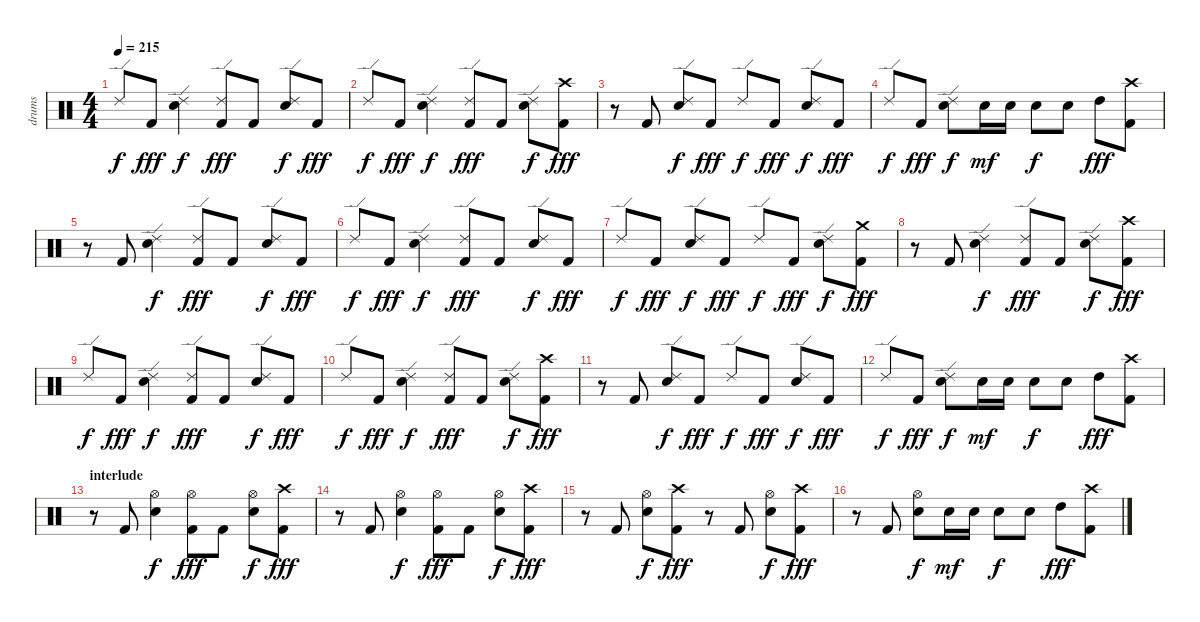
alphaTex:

\track ("drums" "drums") {instrument percussion}
\staff {score}
\articulation defaults
\ts (4 4)
\tempo 215
\clef neutral
\ks c "Ride (edge) 2".8{dy f} "Kick (hit) 2".8{dy fff}
("Ride (edge) 2" "Snare (hit) 2").4{dy f} ("Ride (edge) 2" "Kick (hit) 2").8{dy fff} "Kick (hit) 2".8 ("Ride (edge) 2" "Snare (hit) 2").8{dy f} "Kick (hit) 2".8{dy fff} |
"Ride (edge) 2".8{dy f} "Kick (hit) 2".8{dy fff} ("Ride (edge) 2" "Snare (hit) 2").4{dy f} ("Ride (edge) 2" "Kick (hit) 2").8{dy fff} "Kick (hit) 2".8 ("Ride (edge) 2" "Snare (hit) 2").8{dy f} ("Crash high (hit)" "Kick (hit) 2").8{dy fff} |
r.8 "Kick (hit) 2".8 ("Ride (edge) 2" "Snare (hit) 2").8{dy f} "Kick (hit) 2".8{dy fff} "Ride (edge) 2".8{dy f} "Kick (hit) 2".8{dy fff} ("Ride (edge) 2" "Snare (hit) 2").8{dy f} "Kick (hit) 2".8{dy fff} |
"Ride (edge) 2".8{dy f} "Kick (hit) 2".8{dy fff} ("Ride (edge) 2" "Snare (hit) 2").8{dy f} "Snare (hit) 2".16{dy mf} "Snare (hit) 2".16 "Snare (hit) 2".8{dy f} "Snare (hit) 2".8 "High Tom (hit)".8{dy fff} ("Crash high (hit)" "Kick (hit) 2").8 |
r.8 "Kick (hit) 2".8 ("Ride (edge) 2" "Snare (hit) 2").4{dy f} ("Ride (edge) 2" "Kick (hit) 2").8{dy fff} "Kick (hit) 2".8 ("Ride (edge) 2" "Snare (hit) 2").8{dy f} "Kick (hit) 2".8{dy fff} |
"Ride (edge) 2".8{dy f} "Kick (hit) 2".8{dy fff} ("Ride (edge) 2" "Snare (hit) 2").4{dy f} ("Ride (edge) 2" "Kick (hit) 2").8{dy fff} "Kick (hit) 2".8 ("Ride (edge) 2" "Snare (hit) 2").8{dy f} "Kick (hit) 2".8{dy fff} |
"Ride (edge) 2".8{dy f} "Kick (hit) 2".8{dy fff} ("Ride (edge) 2" "Snare (hit) 2").8{dy f} "Kick (hit) 2".8{dy fff} "Ride (edge) 2".8{dy f} "Kick (hit) 2".8{dy fff} ("Ride (edge) 2" "Snare (hit) 2").8{dy f} ("Crash medium (hit)" "Kick (hit) 2").8{dy fff} |
r.8 "Kick (hit) 2".8 ("Ride (edge) 2" "Snare (hit) 2").4{dy f} ("Ride (edge) 2" "Kick (hit) 2").8{dy fff} "Kick (hit) 2".8 ("Ride (edge) 2" "Snare (hit) 2").8{dy f} ("Crash high (hit)" "Kick (hit) 2").8{dy fff} |
"Ride (edge) 2".8{dy f} "Kick (hit) 2".8{dy fff} ("Ride (edge) 2" "Snare (hit) 2").4{dy f} ("Ride (edge) 2" "Kick (hit) 2").8{dy fff} "Kick (hit) 2".8 ("Ride (edge) 2" "Snare (hit) 2").8{dy f} "Kick (hit) 2".8{dy fff} |
"Ride (edge) 2".8{dy f} "Kick (hit) 2".8{dy fff} ("Ride (edge) 2" "Snare (hit) 2").4{dy f} ("Ride (edge) 2" "Kick (hit) 2").8{dy fff} "Kick (hit) 2".8 ("Ride (edge) 2" "Snare (hit) 2").8{dy f} ("Crash high (hit)" "Kick (hit) 2").8{dy fff} |
r.8 "Kick (hit) 2".8 ("Ride (edge) 2" "Snare (hit) 2").8{dy f} "Kick (hit) 2".8{dy fff} "Ride (edge) 2".8{dy f} "Kick (hit) 2".8{dy fff} ("Ride (edge) 2" "Snare (hit) 2").8{dy f} "Kick (hit) 2".8{dy fff} |
"Ride (edge) 2".8{dy f} "Kick (hit) 2".8{dy fff} ("Ride (edge) 2" "Snare (hit) 2").8{dy f} "Snare (hit) 2".16{dy mf} "Snare (hit) 2".16 "Snare (hit) 2".8{dy f} "Snare (hit) 2".8 "High Tom (hit)".8{dy fff} ("Crash high (hit)" "Kick (hit) 2").8 |
\section ("" "interlude")
r.8 "Kick (hit) 2".8 ("Hi-Hat (open)" "Snare (hit) 2").4{dy f} ("Hi-Hat (open)" "Kick (hit) 2").8{dy fff} "Kick (hit) 2".8 ("Hi-Hat (open)" "Snare (hit) 2").8{dy f} ("Crash high (hit)" "Kick (hit) 2").8{dy fff} |
r.8 "Kick (hit) 2".8 ("Hi-Hat (open)" "Snare (hit) 2").4{dy f} ("Hi-Hat (open)" "Kick (hit) 2").8{dy fff} "Kick (hit) 2".8 ("Hi-Hat (open)" "Snare (hit) 2").8{dy f} ("Crash high (hit)" "Kick (hit) 2").8{dy fff} |
r.8 "Kick (hit) 2".8 ("Hi-Hat (open)" "Snare (hit) 2").8{dy f} ("Crash high (hit)" "Kick (hit) 2").8{dy fff} r.8 "Kick (hit) 2".8 ("Hi-Hat (open)" "Snare (hit) 2").8{dy f} ("Crash high (hit)" "Kick (hit) 2").8{dy fff} |
r.8 "Kick (hit) 2".8 ("Hi-Hat (open)" "Snare (hit) 2").8{dy f} "Snare (hit) 2".16{dy mf} "Snare (hit) 2".16 "Snare (hit) 2".8{dy f} "Snare (hit) 2".8 "High Tom (hit)".8{dy fff} ("Crash high (hit)" "Kick (hit) 2").8
